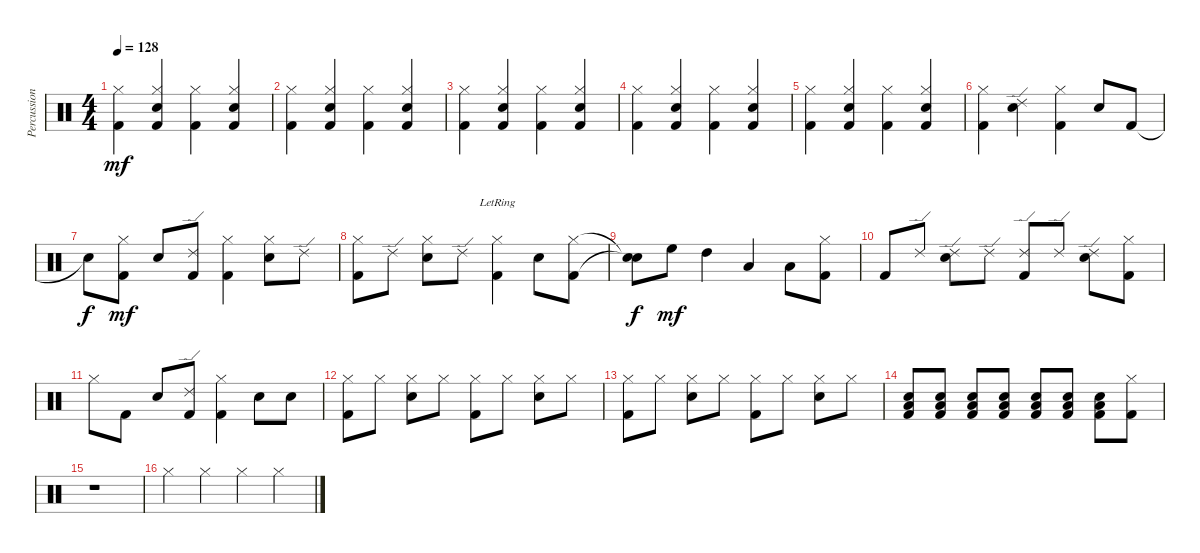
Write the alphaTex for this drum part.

\track ("Percussions" "Percussion") {instrument percussion}
\staff {score}
\articulation defaults
\ts (4 4)
\tempo 128
\clef neutral
\ks c
("Kick (hit) 2" "Hi-Hat (closed)").4{dy mf} ("Kick (hit) 2" "Hi-Hat (closed)" "Snare (hit) 2").4 ("Kick (hit) 2" "Hi-Hat (closed)").4 ("Kick (hit) 2" "Hi-Hat (closed)" "Snare (hit) 2").4 |
("Kick (hit) 2" "Hi-Hat (closed)").4 ("Kick (hit) 2" "Hi-Hat (closed)" "Snare (hit) 2").4 ("Kick (hit) 2" "Hi-Hat (closed)").4 ("Kick (hit) 2" "Hi-Hat (closed)" "Snare (hit) 2").4 |
("Kick (hit) 2" "Hi-Hat (closed)").4 ("Kick (hit) 2" "Hi-Hat (closed)" "Snare (hit) 2").4 ("Kick (hit) 2" "Hi-Hat (closed)").4 ("Kick (hit) 2" "Hi-Hat (closed)" "Snare (hit) 2").4 |
("Kick (hit) 2" "Hi-Hat (closed)").4 ("Kick (hit) 2" "Hi-Hat (closed)" "Snare (hit) 2").4 ("Kick (hit) 2" "Hi-Hat (closed)").4 ("Kick (hit) 2" "Hi-Hat (closed)" "Snare (hit) 2").4 |
("Kick (hit) 2" "Hi-Hat (closed)").4 ("Kick (hit) 2" "Hi-Hat (closed)" "Snare (hit) 2").4 ("Kick (hit) 2" "Hi-Hat (closed)").4 ("Kick (hit) 2" "Hi-Hat (closed)" "Snare (hit) 2").4 |
("Kick (hit) 2" "Hi-Hat (closed)").4 ("Ride (edge) 2" "Snare (hit) 2").4 ("Kick (hit) 2" "Hi-Hat (closed)").4 "Snare (hit) 2".8 "Kick (hit) 2".8 |
"Snare (hit)"{t}.8{dy f} ("Kick (hit) 2" "Hi-Hat (closed)").8{dy mf} "Snare (hit) 2".8 ("Kick (hit) 2" "Ride (edge) 2").8 ("Kick (hit) 2" "Hi-Hat (closed)").4 ("Hi-Hat (closed)" "Snare (hit) 2").8 "Ride (edge) 2".8 |
("Kick (hit) 2" "Hi-Hat (closed)").8 "Ride (edge) 2".8 ("Hi-Hat (closed)" "Snare (hit) 2").8 "Ride (edge) 2".8 ("Kick (hit) 2" "Hi-Hat (closed)"{lr}).4 "Snare (hit) 2".8 ("Kick (hit) 2" "Hi-Hat (closed)").8 |
("Snare (hit)"{t} "Snare (hit)"{t}).8{dy f} "High Floor Tom (hit)".8{dy mf} "High Tom (hit)".4 "Low Tom (hit)".4 "Low Floor Tom (hit)".8 ("Kick (hit) 2" "Hi-Hat (closed)").8 |
"Kick (hit) 2".8 "Ride (edge) 2".8 ("Ride (edge) 2" "Snare (hit) 2").8 "Ride (edge) 2".8 ("Kick (hit) 2" "Ride (edge) 2").8 "Ride (edge) 2".8 ("Ride (edge) 2" "Snare (hit) 2").8 ("Kick (hit) 2" "Hi-Hat (closed)").8 |
"Hi-Hat (closed)".8 "Kick (hit) 2".8 "Snare (hit) 2".8 ("Kick (hit) 2" "Ride (edge) 2").8 ("Kick (hit) 2" "Hi-Hat (closed)").4 "Snare (hit) 2".8 "Snare (hit) 2".8 |
("Kick (hit) 2" "Hi-Hat (closed)").8 "Hi-Hat (closed)".8 ("Hi-Hat (closed)" "Snare (hit) 2").8 "Hi-Hat (closed)".8 ("Kick (hit) 2" "Hi-Hat (closed)").8 "Hi-Hat (closed)".8 ("Hi-Hat (closed)" "Snare (hit) 2").8 "Hi-Hat (closed)".8 |
("Kick (hit) 2" "Hi-Hat (closed)").8 "Hi-Hat (closed)".8 ("Hi-Hat (closed)" "Snare (hit) 2").8 "Hi-Hat (closed)".8 ("Kick (hit) 2" "Hi-Hat (closed)").8 "Hi-Hat (closed)".8 ("Hi-Hat (closed)" "Snare (hit) 2").8 "Hi-Hat (closed)".8 |
("Kick (hit) 2" "Snare (hit) 2" "Low Floor Tom (hit)").8 ("Kick (hit) 2" "Snare (hit) 2" "Low Floor Tom (hit)").8 ("Kick (hit) 2" "Snare (hit) 2" "Low Floor Tom (hit)").8 ("Kick (hit) 2" "Snare (hit) 2" "Low Floor Tom (hit)").8 ("Kick (hit) 2" "Snare (hit) 2" "Low Floor Tom (hit)").8 ("Kick (hit) 2" "Snare (hit) 2" "Low Floor Tom (hit)").8 ("Kick (hit) 2" "Snare (hit) 2" "Low Floor Tom (hit)").8 ("Kick (hit) 2" "Hi-Hat (closed)").8 |
r.1 |
"Hi-Hat (closed)".4 "Hi-Hat (closed)".4 "Hi-Hat (closed)".4 "Hi-Hat (closed)".4
